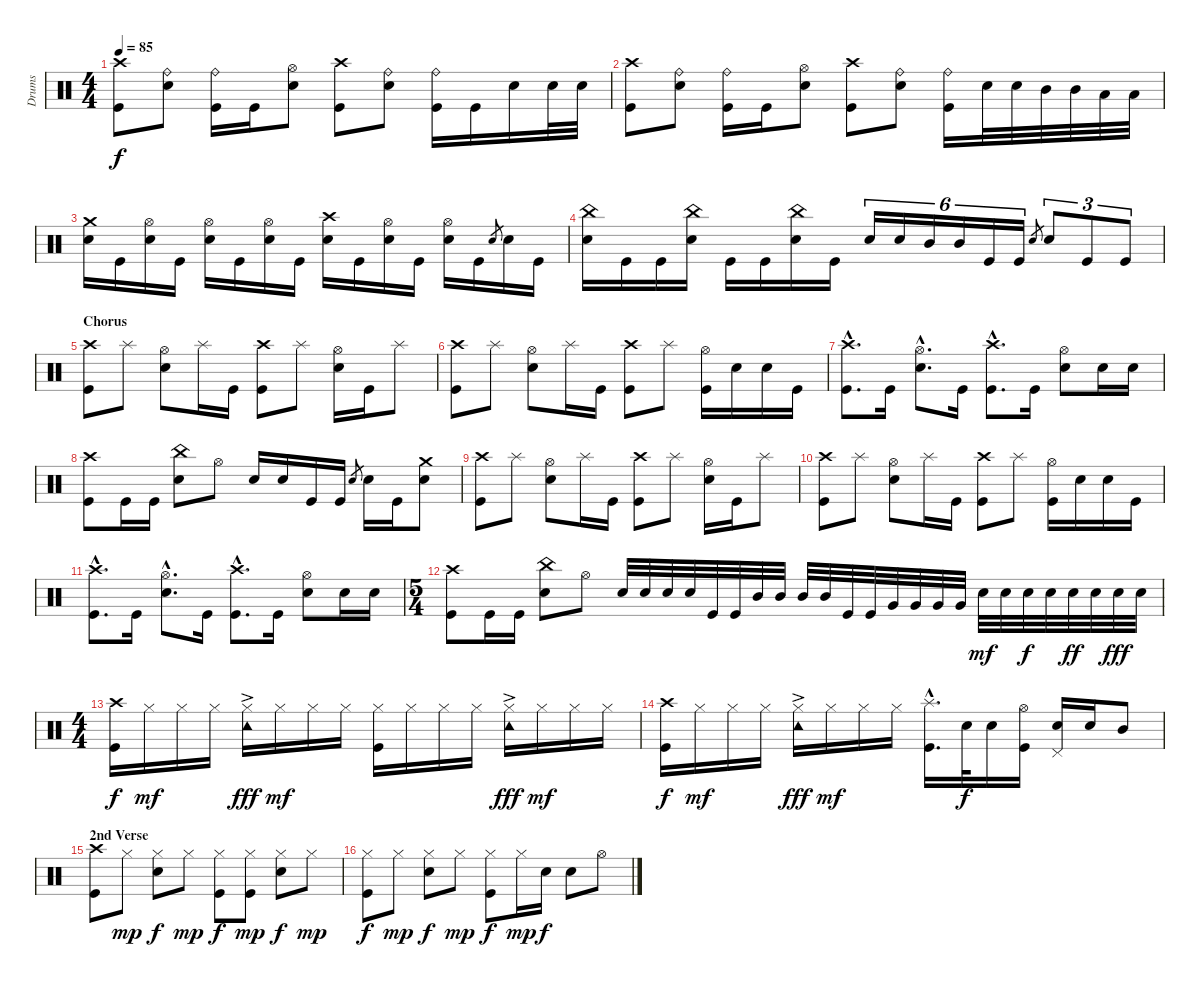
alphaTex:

\track ("Drums" "Drums") {instrument percussion}
\staff {score}
\articulation defaults
\ts (4 4)
\tempo 85
\clef neutral
\ks c
("Crash high (hit)" "Kick (hit)").8{dy f} ("Ride (bell)" "Electric Snare (hit)").8 ("Ride (bell)" "Kick (hit)").16 "Kick (hit)".16 ("Hi-Hat (open)" "Electric Snare (hit)").8 ("Crash high (hit)" "Kick (hit)").8 ("Ride (bell)" "Electric Snare (hit)").8 ("Ride (bell)" "Kick (hit)").16 "Kick (hit)".16 "Electric Snare (hit)".16 "Electric Snare (hit)".32 "Electric Snare (hit)".32 |
("Crash high (hit)" "Kick (hit)").8 ("Ride (bell)" "Electric Snare (hit)").8 ("Ride (bell)" "Kick (hit)").16 "Kick (hit)".16 ("Hi-Hat (open)" "Electric Snare (hit)").8 ("Crash high (hit)" "Kick (hit)").8 ("Ride (bell)" "Electric Snare (hit)").8 ("Ride (bell)" "Kick (hit)").16 "Electric Snare (hit)".32 "Electric Snare (hit)".32 "Mid Tom (hit)".32 "Mid Tom (hit)".32 "Low Tom (hit)".32 "Low Tom (hit)".32 |
("Crash medium (hit)" "Electric Snare (hit)").16 "Kick (hit)".16 ("Hi-Hat (open)" "Electric Snare (hit)").16 "Kick (hit)".16 ("Hi-Hat (open)" "Electric Snare (hit)").16 "Kick (hit)".16 ("Hi-Hat (open)" "Electric Snare (hit)").16 "Kick (hit)".16 ("Crash high (hit)" "Electric Snare (hit)").16 "Kick (hit)".16 ("Hi-Hat (open)" "Electric Snare (hit)").16 "Kick (hit)".16 ("Hi-Hat (open)" "Electric Snare (hit)").16 "Kick (hit)".16 "Electric Snare (hit)".8{gr} "Electric Snare (hit)".16 "Kick (hit)".16 |
("China (hit)" "Electric Snare (hit)").16 "Kick (hit)".16 "Kick (hit)".16 ("China (hit)" "Electric Snare (hit)").16 "Kick (hit)".16 "Kick (hit)".16 ("China (hit)" "Electric Snare (hit)").16 "Kick (hit)".16 "Electric Snare (hit)".16{tu (6 4)} "Electric Snare (hit)".16{tu (6 4)} "Mid Tom (hit)".16{tu (6 4)} "Mid Tom (hit)".16{tu (6 4)} "Kick (hit)".16{tu (6 4)} "Kick (hit)".16{tu (6 4)} "Electric Snare (hit)".8{gr} "Electric Snare (hit)".8{tu (3 2)} "Kick (hit)".8{tu (3 2)} "Kick (hit)".8{tu (3 2)} |
\section ("" "Chorus")
("Crash high (hit)" "Kick (hit)").8 "Splash (hit)".8 ("Hi-Hat (open)" "Electric Snare (hit)").8 "Splash (hit)".16 "Kick (hit)".16 ("Crash high (hit)" "Kick (hit)").8 "Splash (hit)".8 ("Hi-Hat (open)" "Electric Snare (hit)").16 "Kick (hit)".16 "Splash (hit)".8 |
("Crash high (hit)" "Kick (hit)").8 "Splash (hit)".8 ("Hi-Hat (open)" "Electric Snare (hit)").8 "Splash (hit)".16 "Kick (hit)".16 ("Crash high (hit)" "Kick (hit)").8 "Splash (hit)".8 ("Hi-Hat (open)" "Kick (hit)").16 "Electric Snare (hit)".16 "Electric Snare (hit)".16 "Kick (hit)".16 |
("Crash high (hit)"{hac} "Kick (hit)"{hac}).8{d} "Kick (hit)".16 ("Hi-Hat (open)"{hac} "Electric Snare (hit)"{hac}).8{d} "Kick (hit)".16 ("Crash high (hit)"{hac} "Kick (hit)"{hac}).8{d} "Kick (hit)".16 ("Hi-Hat (open)" "Electric Snare (hit)").8 "Electric Snare (hit)".16 "Electric Snare (hit)".16 |
("Crash high (hit)" "Kick (hit)").8 "Kick (hit)".16 "Kick (hit)".16 ("China (hit)" "Electric Snare (hit)").8 "Hi-Hat (open)".8 "Electric Snare (hit)".16 "Electric Snare (hit)".16 "Kick (hit)".16 "Kick (hit)".16 "Electric Snare (hit)".8{gr} "Electric Snare (hit)".16 "Kick (hit)".16 ("Crash medium (hit)" "Electric Snare (hit)").8 |
("Crash high (hit)" "Kick (hit)").8 "Splash (hit)".8 ("Hi-Hat (open)" "Electric Snare (hit)").8 "Splash (hit)".16 "Kick (hit)".16 ("Crash high (hit)" "Kick (hit)").8 "Splash (hit)".8 ("Hi-Hat (open)" "Electric Snare (hit)").16 "Kick (hit)".16 "Splash (hit)".8 |
("Crash high (hit)" "Kick (hit)").8 "Splash (hit)".8 ("Hi-Hat (open)" "Electric Snare (hit)").8 "Splash (hit)".16 "Kick (hit)".16 ("Crash high (hit)" "Kick (hit)").8 "Splash (hit)".8 ("Hi-Hat (open)" "Kick (hit)").16 "Electric Snare (hit)".16 "Electric Snare (hit)".16 "Kick (hit)".16 |
("Crash high (hit)"{hac} "Kick (hit)"{hac}).8{d} "Kick (hit)".16 ("Hi-Hat (open)"{hac} "Electric Snare (hit)"{hac}).8{d} "Kick (hit)".16 ("Crash high (hit)"{hac} "Kick (hit)"{hac}).8{d} "Kick (hit)".16 ("Hi-Hat (open)" "Electric Snare (hit)").8 "Electric Snare (hit)".16 "Electric Snare (hit)".16 |
\ts (5 4)
("Crash high (hit)" "Kick (hit)").8 "Kick (hit)".16 "Kick (hit)".16 ("China (hit)" "Electric Snare (hit)").8 "Hi-Hat (open)".8 "Electric Snare (hit)".32 "Electric Snare (hit)".32 "Electric Snare (hit)".32 "Electric Snare (hit)".32 "Kick (hit)".32 "Kick (hit)".32 "Mid Tom (hit)".32 "Mid Tom (hit)".32 "Mid Tom (hit)".32 "Mid Tom (hit)".32 "Kick (hit)".32 "Kick (hit)".32 "Very Low Tom (hit)".32 "Very Low Tom (hit)".32 "Very Low Tom (hit)".32 "Very Low Tom (hit)".32 "Electric Snare (hit)".32{dy mf} "Electric Snare (hit)".32 "Electric Snare (hit)".32{dy f} "Electric Snare (hit)".32 "Electric Snare (hit)".32{dy ff} "Electric Snare (hit)".32 "Electric Snare (hit)".32{dy fff} "Electric Snare (hit)".32 |
\ts (4 4)
("Crash high (hit)" "Kick (hit)").16{dy f} "Hi-Hat (closed)".16{dy mf} "Hi-Hat (closed)".16 "Hi-Hat (closed)".16 ("Hi-Hat (closed)"{ac} "Tambourine (hit)").16{dy fff} "Hi-Hat (closed)".16{dy mf} "Hi-Hat (closed)".16 "Hi-Hat (closed)".16 ("Hi-Hat (closed)" "Kick (hit)").16 "Hi-Hat (closed)".16 "Hi-Hat (closed)".16 "Hi-Hat (closed)".16 ("Hi-Hat (closed)"{ac} "Tambourine (hit)").16{dy fff} "Hi-Hat (closed)".16{dy mf} "Hi-Hat (closed)".16 "Hi-Hat (closed)".16 |
("Crash high (hit)" "Kick (hit)").16{dy f} "Hi-Hat (closed)".16{dy mf} "Hi-Hat (closed)".16 "Hi-Hat (closed)".16 ("Hi-Hat (closed)"{ac} "Tambourine (hit)").16{dy fff} "Hi-Hat (closed)".16{dy mf} "Hi-Hat (closed)".16 "Hi-Hat (closed)".16 ("Splash (hit)"{hac} "Kick (hit)"{hac}).16{d} "Electric Snare (hit)".32{dy f} "Electric Snare (hit)".16 ("Hi-Hat (open)" "Kick (hit)").16 ("Electric Snare (hit)" "Pedal Hi-Hat (hit)").16 "Electric Snare (hit)".16 "Mid Tom (hit)".8 |
\section ("" "2nd Verse")
("Crash high (hit)" "Kick (hit)").8 "Hi-Hat (closed)".8{dy mp} ("Hi-Hat (closed)" "Electric Snare (hit)").8{dy f} "Hi-Hat (closed)".8{dy mp} ("Hi-Hat (closed)" "Kick (hit)").8{dy f} ("Hi-Hat (closed)" "Kick (hit)").8{dy mp} ("Hi-Hat (closed)" "Electric Snare (hit)").8{dy f} "Hi-Hat (closed)".8{dy mp} |
("Hi-Hat (closed)" "Kick (hit)").8{dy f} "Hi-Hat (closed)".8{dy mp} ("Hi-Hat (closed)" "Electric Snare (hit)").8{dy f} "Hi-Hat (closed)".8{dy mp} ("Hi-Hat (closed)" "Kick (hit)").8{dy f} "Hi-Hat (closed)".16{dy mp} "Electric Snare (hit)".16{dy f} "Electric Snare (hit)".8 "Hi-Hat (open)".8
